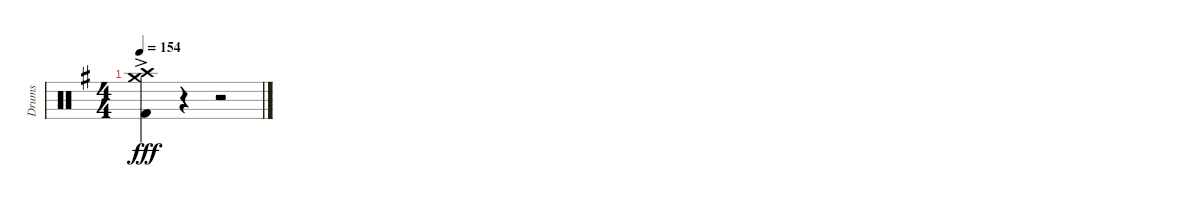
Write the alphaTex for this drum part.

\track ("Drums" "Drums") {instrument percussion}
\staff {score}
\articulation defaults
\ts (4 4)
\tempo 154
\clef neutral
\ks g
("Crash medium (hit)"{ac} "Crash high (hit)"{ac} "Kick (hit) 2"{ac}).4{dy fff} r.4 r.2
